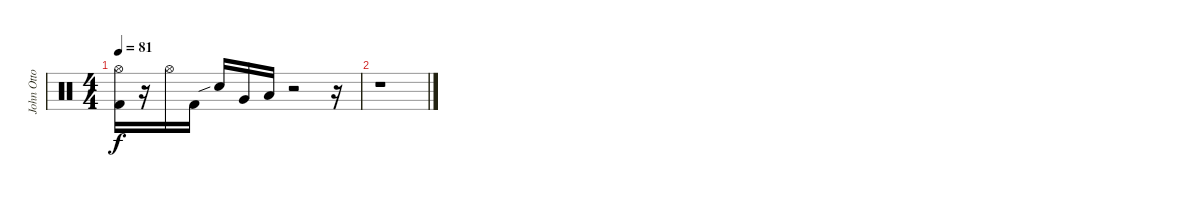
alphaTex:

\track ("John Otto" "John Otto") {instrument percussion}
\staff {score}
\articulation defaults
\ts (4 4)
\tempo 81
\clef neutral
\ks c
("Hi-Hat (open)" "Kick (hit) 2").16{dy f} r.16 "Hi-Hat (open)".16 "Kick (hit) 2".16 "Snare (hit) 2"{sib}.16 "Very Low Tom (hit)".16 "Low Tom (hit)".16 r.2 r.16 |
r.1
